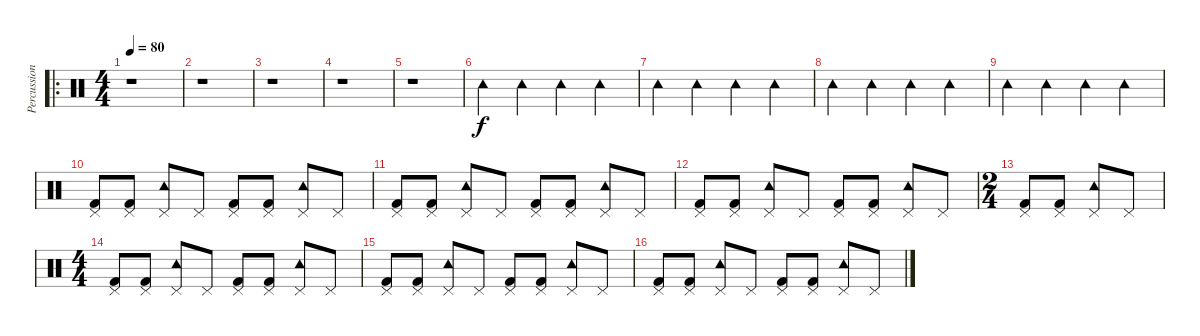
\track ("Percussions" "Percussion") {instrument percussion}
\staff {score}
\articulation defaults
\ro
\ts (4 4)
\tempo 80
\clef neutral
\ks c
r.1{dy f} |
r.1 |
r.1 |
r.1 |
r.1 |
"Tambourine (hit)".4 "Tambourine (hit)".4 "Tambourine (hit)".4 "Tambourine (hit)".4 |
"Tambourine (hit)".4 "Tambourine (hit)".4 "Tambourine (hit)".4 "Tambourine (hit)".4 |
"Tambourine (hit)".4 "Tambourine (hit)".4 "Tambourine (hit)".4 "Tambourine (hit)".4 |
"Tambourine (hit)".4 "Tambourine (hit)".4 "Tambourine (hit)".4 "Tambourine (hit)".4 |
("Pedal Hi-Hat (hit)" "Kick (hit) 2").8 ("Pedal Hi-Hat (hit)" "Kick (hit) 2").8 ("Pedal Hi-Hat (hit)" "Tambourine (hit)").8 "Pedal Hi-Hat (hit)".8 ("Pedal Hi-Hat (hit)" "Kick (hit) 2").8 ("Pedal Hi-Hat (hit)" "Kick (hit) 2").8 ("Pedal Hi-Hat (hit)" "Tambourine (hit)").8 "Pedal Hi-Hat (hit)".8 |
("Pedal Hi-Hat (hit)" "Kick (hit) 2").8 ("Pedal Hi-Hat (hit)" "Kick (hit) 2").8 ("Pedal Hi-Hat (hit)" "Tambourine (hit)").8 "Pedal Hi-Hat (hit)".8 ("Pedal Hi-Hat (hit)" "Kick (hit) 2").8 ("Pedal Hi-Hat (hit)" "Kick (hit) 2").8 ("Pedal Hi-Hat (hit)" "Tambourine (hit)").8 "Pedal Hi-Hat (hit)".8 |
("Pedal Hi-Hat (hit)" "Kick (hit) 2").8 ("Pedal Hi-Hat (hit)" "Kick (hit) 2").8 ("Pedal Hi-Hat (hit)" "Tambourine (hit)").8 "Pedal Hi-Hat (hit)".8 ("Pedal Hi-Hat (hit)" "Kick (hit) 2").8 ("Pedal Hi-Hat (hit)" "Kick (hit) 2").8 ("Pedal Hi-Hat (hit)" "Tambourine (hit)").8 "Pedal Hi-Hat (hit)".8 |
\ts (2 4)
("Pedal Hi-Hat (hit)" "Kick (hit) 2").8 ("Pedal Hi-Hat (hit)" "Kick (hit) 2").8 ("Pedal Hi-Hat (hit)" "Tambourine (hit)").8 "Pedal Hi-Hat (hit)".8 |
\ts (4 4)
("Pedal Hi-Hat (hit)" "Kick (hit) 2").8 ("Pedal Hi-Hat (hit)" "Kick (hit) 2").8 ("Pedal Hi-Hat (hit)" "Tambourine (hit)").8 "Pedal Hi-Hat (hit)".8 ("Pedal Hi-Hat (hit)" "Kick (hit) 2").8 ("Pedal Hi-Hat (hit)" "Kick (hit) 2").8 ("Pedal Hi-Hat (hit)" "Tambourine (hit)").8 "Pedal Hi-Hat (hit)".8 |
("Pedal Hi-Hat (hit)" "Kick (hit) 2").8 ("Pedal Hi-Hat (hit)" "Kick (hit) 2").8 ("Pedal Hi-Hat (hit)" "Tambourine (hit)").8 "Pedal Hi-Hat (hit)".8 ("Pedal Hi-Hat (hit)" "Kick (hit) 2").8 ("Pedal Hi-Hat (hit)" "Kick (hit) 2").8 ("Pedal Hi-Hat (hit)" "Tambourine (hit)").8 "Pedal Hi-Hat (hit)".8 |
("Pedal Hi-Hat (hit)" "Kick (hit) 2").8 ("Pedal Hi-Hat (hit)" "Kick (hit) 2").8 ("Pedal Hi-Hat (hit)" "Tambourine (hit)").8 "Pedal Hi-Hat (hit)".8 ("Pedal Hi-Hat (hit)" "Kick (hit) 2").8 ("Pedal Hi-Hat (hit)" "Kick (hit) 2").8 ("Pedal Hi-Hat (hit)" "Tambourine (hit)").8 "Pedal Hi-Hat (hit)".8
